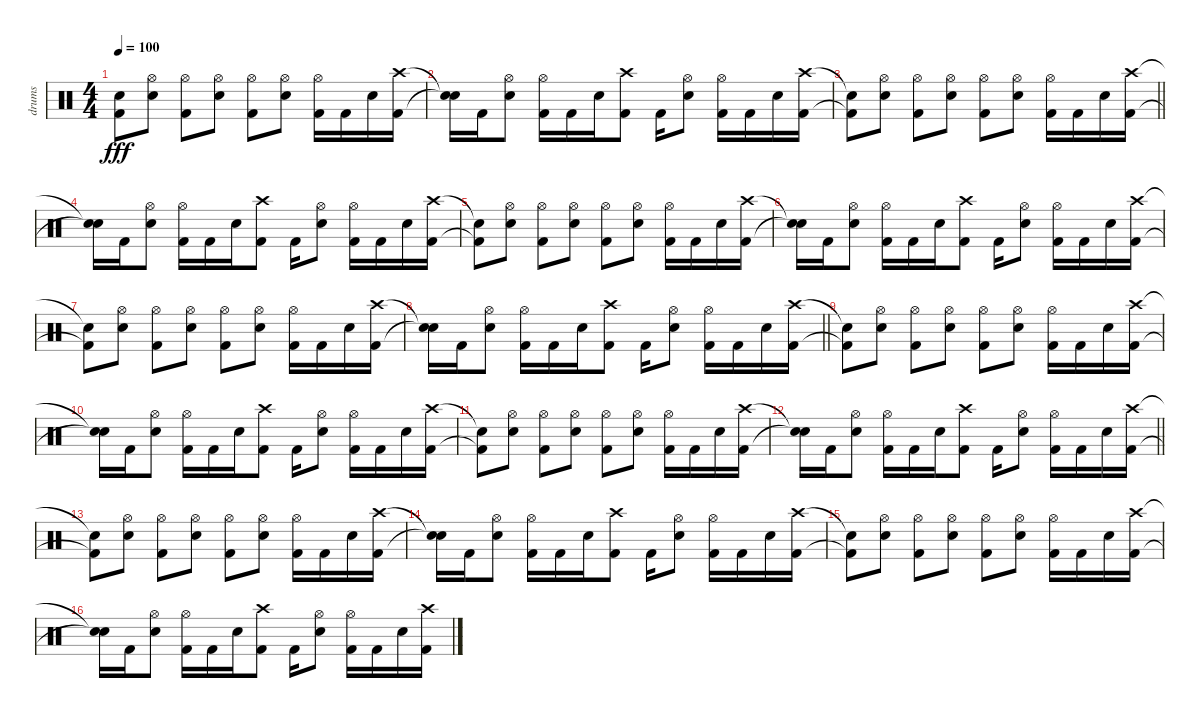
\track ("drums" "drums") {instrument percussion}
\staff {score}
\articulation defaults
\ts (4 4)
\tempo 100
\clef neutral
\ks c
("Snare (hit)"{t} "Kick (hit) 2"{t}).8{dy fff} ("Hi-Hat (open)" "Snare (hit) 2").8 ("Hi-Hat (open)" "Kick (hit) 2").8 ("Hi-Hat (open)" "Snare (hit) 2").8 ("Hi-Hat (open)" "Kick (hit) 2").8 ("Hi-Hat (open)" "Snare (hit) 2").8 ("Hi-Hat (open)" "Kick (hit) 2").16 "Kick (hit) 2".16 "Snare (hit) 2".16 ("Crash high (hit)" "Kick (hit) 2").16 |
("Snare (hit)"{t} "Snare (hit)"{t}).16 "Kick (hit) 2".16 ("Hi-Hat (open)" "Snare (hit) 2").8 ("Hi-Hat (open)" "Kick (hit) 2").16 "Kick (hit) 2".16 "Snare (hit) 2".16 ("Crash high (hit)" "Kick (hit) 2").8 "Kick (hit) 2".16 ("Hi-Hat (open)" "Snare (hit) 2").8 ("Hi-Hat (open)" "Kick (hit) 2").16 "Kick (hit) 2".16 "Snare (hit) 2".16 ("Crash high (hit)" "Kick (hit) 2").16 |
\barLineRight lightlight
("Snare (hit)"{t} "Kick (hit) 2"{t}).8 ("Hi-Hat (open)" "Snare (hit) 2").8 ("Hi-Hat (open)" "Kick (hit) 2").8 ("Hi-Hat (open)" "Snare (hit) 2").8 ("Hi-Hat (open)" "Kick (hit) 2").8 ("Hi-Hat (open)" "Snare (hit) 2").8 ("Hi-Hat (open)" "Kick (hit) 2").16 "Kick (hit) 2".16 "Snare (hit) 2".16 ("Crash high (hit)" "Kick (hit) 2").16 |
("Snare (hit)"{t} "Snare (hit)"{t}).16 "Kick (hit) 2".16 ("Hi-Hat (open)" "Snare (hit) 2").8 ("Hi-Hat (open)" "Kick (hit) 2").16 "Kick (hit) 2".16 "Snare (hit) 2".16 ("Crash high (hit)" "Kick (hit) 2").8 "Kick (hit) 2".16 ("Hi-Hat (open)" "Snare (hit) 2").8 ("Hi-Hat (open)" "Kick (hit) 2").16 "Kick (hit) 2".16 "Snare (hit) 2".16 ("Crash high (hit)" "Kick (hit) 2").16 |
("Snare (hit)"{t} "Kick (hit) 2"{t}).8 ("Hi-Hat (open)" "Snare (hit) 2").8 ("Hi-Hat (open)" "Kick (hit) 2").8 ("Hi-Hat (open)" "Snare (hit) 2").8 ("Hi-Hat (open)" "Kick (hit) 2").8 ("Hi-Hat (open)" "Snare (hit) 2").8 ("Hi-Hat (open)" "Kick (hit) 2").16 "Kick (hit) 2".16 "Snare (hit) 2".16 ("Crash high (hit)" "Kick (hit) 2").16 |
("Snare (hit)"{t} "Snare (hit)"{t}).16 "Kick (hit) 2".16 ("Hi-Hat (open)" "Snare (hit) 2").8 ("Hi-Hat (open)" "Kick (hit) 2").16 "Kick (hit) 2".16 "Snare (hit) 2".16 ("Crash high (hit)" "Kick (hit) 2").8 "Kick (hit) 2".16 ("Hi-Hat (open)" "Snare (hit) 2").8 ("Hi-Hat (open)" "Kick (hit) 2").16 "Kick (hit) 2".16 "Snare (hit) 2".16 ("Crash high (hit)" "Kick (hit) 2").16 |
("Snare (hit)"{t} "Kick (hit) 2"{t}).8 ("Hi-Hat (open)" "Snare (hit) 2").8 ("Hi-Hat (open)" "Kick (hit) 2").8 ("Hi-Hat (open)" "Snare (hit) 2").8 ("Hi-Hat (open)" "Kick (hit) 2").8 ("Hi-Hat (open)" "Snare (hit) 2").8 ("Hi-Hat (open)" "Kick (hit) 2").16 "Kick (hit) 2".16 "Snare (hit) 2".16 ("Crash high (hit)" "Kick (hit) 2").16 |
\barLineRight lightlight
("Snare (hit)"{t} "Snare (hit)"{t}).16 "Kick (hit) 2".16 ("Hi-Hat (open)" "Snare (hit) 2").8 ("Hi-Hat (open)" "Kick (hit) 2").16 "Kick (hit) 2".16 "Snare (hit) 2".16 ("Crash high (hit)" "Kick (hit) 2").8 "Kick (hit) 2".16 ("Hi-Hat (open)" "Snare (hit) 2").8 ("Hi-Hat (open)" "Kick (hit) 2").16 "Kick (hit) 2".16 "Snare (hit) 2".16 ("Crash high (hit)" "Kick (hit) 2").16 |
("Snare (hit)"{t} "Kick (hit) 2"{t}).8 ("Hi-Hat (open)" "Snare (hit) 2").8 ("Hi-Hat (open)" "Kick (hit) 2").8 ("Hi-Hat (open)" "Snare (hit) 2").8 ("Hi-Hat (open)" "Kick (hit) 2").8 ("Hi-Hat (open)" "Snare (hit) 2").8 ("Hi-Hat (open)" "Kick (hit) 2").16 "Kick (hit) 2".16 "Snare (hit) 2".16 ("Crash high (hit)" "Kick (hit) 2").16 |
("Snare (hit)"{t} "Snare (hit)"{t}).16 "Kick (hit) 2".16 ("Hi-Hat (open)" "Snare (hit) 2").8 ("Hi-Hat (open)" "Kick (hit) 2").16 "Kick (hit) 2".16 "Snare (hit) 2".16 ("Crash high (hit)" "Kick (hit) 2").8 "Kick (hit) 2".16 ("Hi-Hat (open)" "Snare (hit) 2").8 ("Hi-Hat (open)" "Kick (hit) 2").16 "Kick (hit) 2".16 "Snare (hit) 2".16 ("Crash high (hit)" "Kick (hit) 2").16 |
("Snare (hit)"{t} "Kick (hit) 2"{t}).8 ("Hi-Hat (open)" "Snare (hit) 2").8 ("Hi-Hat (open)" "Kick (hit) 2").8 ("Hi-Hat (open)" "Snare (hit) 2").8 ("Hi-Hat (open)" "Kick (hit) 2").8 ("Hi-Hat (open)" "Snare (hit) 2").8 ("Hi-Hat (open)" "Kick (hit) 2").16 "Kick (hit) 2".16 "Snare (hit) 2".16 ("Crash high (hit)" "Kick (hit) 2").16 |
\barLineRight lightlight
("Snare (hit)"{t} "Snare (hit)"{t}).16 "Kick (hit) 2".16 ("Hi-Hat (open)" "Snare (hit) 2").8 ("Hi-Hat (open)" "Kick (hit) 2").16 "Kick (hit) 2".16 "Snare (hit) 2".16 ("Crash high (hit)" "Kick (hit) 2").8 "Kick (hit) 2".16 ("Hi-Hat (open)" "Snare (hit) 2").8 ("Hi-Hat (open)" "Kick (hit) 2").16 "Kick (hit) 2".16 "Snare (hit) 2".16 ("Crash high (hit)" "Kick (hit) 2").16 |
("Snare (hit)"{t} "Kick (hit) 2"{t}).8 ("Hi-Hat (open)" "Snare (hit) 2").8 ("Hi-Hat (open)" "Kick (hit) 2").8 ("Hi-Hat (open)" "Snare (hit) 2").8 ("Hi-Hat (open)" "Kick (hit) 2").8 ("Hi-Hat (open)" "Snare (hit) 2").8 ("Hi-Hat (open)" "Kick (hit) 2").16 "Kick (hit) 2".16 "Snare (hit) 2".16 ("Crash high (hit)" "Kick (hit) 2").16 |
("Snare (hit)"{t} "Snare (hit)"{t}).16 "Kick (hit) 2".16 ("Hi-Hat (open)" "Snare (hit) 2").8 ("Hi-Hat (open)" "Kick (hit) 2").16 "Kick (hit) 2".16 "Snare (hit) 2".16 ("Crash high (hit)" "Kick (hit) 2").8 "Kick (hit) 2".16 ("Hi-Hat (open)" "Snare (hit) 2").8 ("Hi-Hat (open)" "Kick (hit) 2").16 "Kick (hit) 2".16 "Snare (hit) 2".16 ("Crash high (hit)" "Kick (hit) 2").16 |
("Snare (hit)"{t} "Kick (hit) 2"{t}).8 ("Hi-Hat (open)" "Snare (hit) 2").8 ("Hi-Hat (open)" "Kick (hit) 2").8 ("Hi-Hat (open)" "Snare (hit) 2").8 ("Hi-Hat (open)" "Kick (hit) 2").8 ("Hi-Hat (open)" "Snare (hit) 2").8 ("Hi-Hat (open)" "Kick (hit) 2").16 "Kick (hit) 2".16 "Snare (hit) 2".16 ("Crash high (hit)" "Kick (hit) 2").16 |
("Snare (hit)"{t} "Snare (hit)"{t}).16 "Kick (hit) 2".16 ("Hi-Hat (open)" "Snare (hit) 2").8 ("Hi-Hat (open)" "Kick (hit) 2").16 "Kick (hit) 2".16 "Snare (hit) 2".16 ("Crash high (hit)" "Kick (hit) 2").8 "Kick (hit) 2".16 ("Hi-Hat (open)" "Snare (hit) 2").8 ("Hi-Hat (open)" "Kick (hit) 2").16 "Kick (hit) 2".16 "Snare (hit) 2".16 ("Crash high (hit)" "Kick (hit) 2").16
